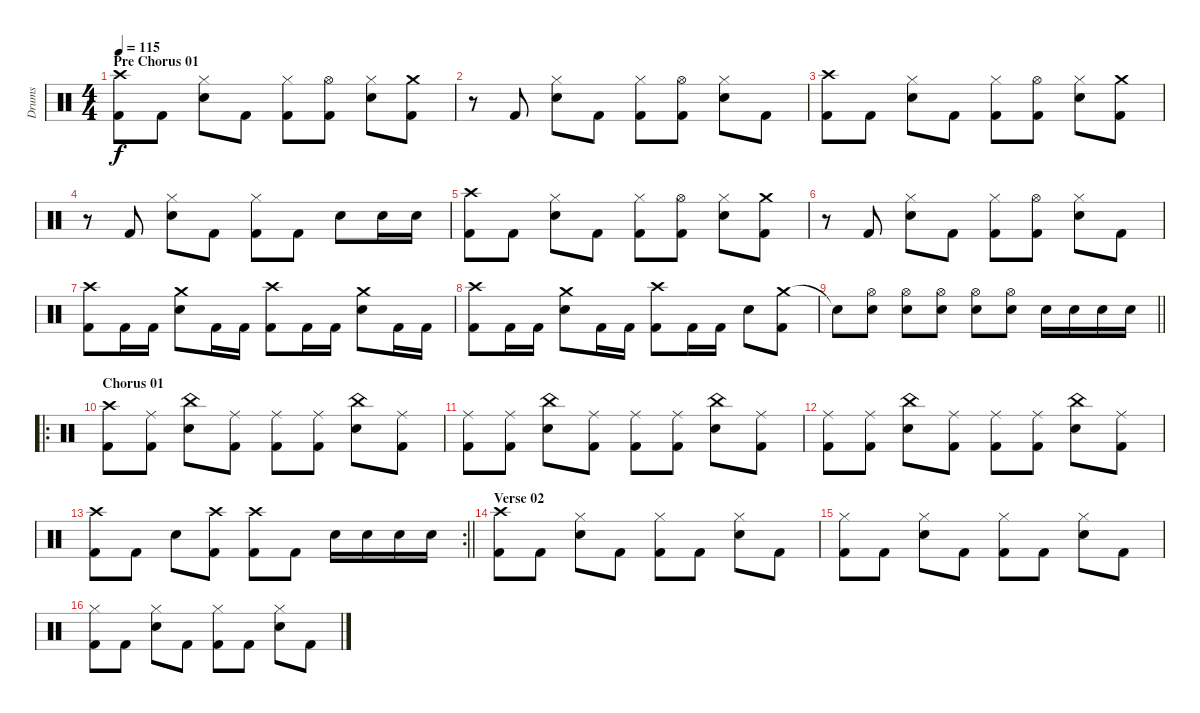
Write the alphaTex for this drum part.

\track ("Drums" "Drums") {instrument percussion}
\staff {score}
\articulation defaults
\ts (4 4)
\section ("" "Pre Chorus 01")
\tempo 115
\clef neutral
\ks c
("Crash high (hit)" "Kick (hit) 2").8{dy f} "Kick (hit) 2".8 ("Hi-Hat (closed)" "Snare (hit) 2").8 "Kick (hit) 2".8 ("Hi-Hat (closed)" "Kick (hit) 2").8 ("Hi-Hat (open)" "Kick (hit) 2").8 ("Hi-Hat (closed)" "Snare (hit) 2").8 ("Crash medium (hit)" "Kick (hit) 2").8 |
r.8 "Kick (hit) 2".8 ("Hi-Hat (closed)" "Snare (hit) 2").8 "Kick (hit) 2".8 ("Hi-Hat (closed)" "Kick (hit) 2").8 ("Hi-Hat (open)" "Kick (hit) 2").8 ("Hi-Hat (closed)" "Snare (hit) 2").8 "Kick (hit) 2".8 |
("Crash high (hit)" "Kick (hit) 2").8 "Kick (hit) 2".8 ("Hi-Hat (closed)" "Snare (hit) 2").8 "Kick (hit) 2".8 ("Hi-Hat (closed)" "Kick (hit) 2").8 ("Hi-Hat (open)" "Kick (hit) 2").8 ("Hi-Hat (closed)" "Snare (hit) 2").8 ("Crash medium (hit)" "Kick (hit) 2").8 |
r.8 "Kick (hit) 2".8 ("Hi-Hat (closed)" "Snare (hit) 2").8 "Kick (hit) 2".8 ("Hi-Hat (closed)" "Kick (hit) 2").8 "Kick (hit) 2".8 "Snare (hit) 2".8 "Snare (hit) 2".16 "Snare (hit) 2".16 |
("Crash high (hit)" "Kick (hit) 2").8 "Kick (hit) 2".8 ("Hi-Hat (closed)" "Snare (hit) 2").8 "Kick (hit) 2".8 ("Hi-Hat (closed)" "Kick (hit) 2").8 ("Hi-Hat (open)" "Kick (hit) 2").8 ("Hi-Hat (closed)" "Snare (hit) 2").8 ("Crash medium (hit)" "Kick (hit) 2").8 |
r.8 "Kick (hit) 2".8 ("Hi-Hat (closed)" "Snare (hit) 2").8 "Kick (hit) 2".8 ("Hi-Hat (closed)" "Kick (hit) 2").8 ("Hi-Hat (open)" "Kick (hit) 2").8 ("Hi-Hat (closed)" "Snare (hit) 2").8 "Kick (hit) 2".8 |
("Crash high (hit)" "Kick (hit) 2").8 "Kick (hit) 2".16 "Kick (hit) 2".16 ("Crash medium (hit)" "Snare (hit) 2").8 "Kick (hit) 2".16 "Kick (hit) 2".16 ("Crash high (hit)" "Kick (hit) 2").8 "Kick (hit) 2".16 "Kick (hit) 2".16 ("Crash medium (hit)" "Snare (hit) 2").8 "Kick (hit) 2".16 "Kick (hit) 2".16 |
("Crash high (hit)" "Kick (hit) 2").8 "Kick (hit) 2".16 "Kick (hit) 2".16 ("Crash medium (hit)" "Snare (hit) 2").8 "Kick (hit) 2".16 "Kick (hit) 2".16 ("Crash high (hit)" "Kick (hit) 2").8 "Kick (hit) 2".16 "Kick (hit) 2".16 "Snare (hit) 2".8 ("Crash medium (hit)" "Kick (hit) 2").8 |
\barLineRight lightlight "Snare (hit)"{t}.8
("Hi-Hat (open)" "Snare (hit) 2").8 ("Hi-Hat (open)" "Snare (hit) 2").8 ("Hi-Hat (open)" "Snare (hit) 2").8 ("Hi-Hat (open)" "Snare (hit) 2").8 ("Hi-Hat (open)" "Snare (hit) 2").8 "Snare (hit) 2".16 "Snare (hit) 2".16 "Snare (hit) 2".16 "Snare (hit) 2".16 |
\ro
\section ("" "Chorus 01")
("Crash high (hit)" "Kick (hit) 2").8 ("Ride (middle)" "Kick (hit) 2").8 ("China (hit)" "Snare (hit) 2").8 ("Ride (middle)" "Kick (hit) 2").8 ("Ride (middle)" "Kick (hit) 2").8 ("Ride (middle)" "Kick (hit) 2").8 ("China (hit)" "Snare (hit) 2").8 ("Ride (middle)" "Kick (hit) 2").8 |
("Ride (middle)" "Kick (hit) 2").8 ("Ride (middle)" "Kick (hit) 2").8 ("China (hit)" "Snare (hit) 2").8 ("Ride (middle)" "Kick (hit) 2").8 ("Ride (middle)" "Kick (hit) 2").8 ("Ride (middle)" "Kick (hit) 2").8 ("China (hit)" "Snare (hit) 2").8 ("Ride (middle)" "Kick (hit) 2").8 |
("Ride (middle)" "Kick (hit) 2").8 ("Ride (middle)" "Kick (hit) 2").8 ("China (hit)" "Snare (hit) 2").8 ("Ride (middle)" "Kick (hit) 2").8 ("Ride (middle)" "Kick (hit) 2").8 ("Ride (middle)" "Kick (hit) 2").8 ("China (hit)" "Snare (hit) 2").8 ("Ride (middle)" "Kick (hit) 2").8 |
\rc 2
\barLineRight lightlight
("Crash high (hit)" "Kick (hit) 2").8 "Kick (hit) 2".8 "Snare (hit) 2".8 ("Crash high (hit)" "Kick (hit) 2").8 ("Crash high (hit)" "Kick (hit) 2").8 "Kick (hit) 2".8 "Snare (hit) 2".16 "Snare (hit) 2".16 "Snare (hit) 2".16 "Snare (hit) 2".16 |
\section ("" "Verse 02")
("Crash high (hit)" "Kick (hit) 2").8 "Kick (hit) 2".8 ("Hi-Hat (closed)" "Snare (hit) 2").8 "Kick (hit) 2".8 ("Hi-Hat (closed)" "Kick (hit) 2").8 "Kick (hit) 2".8 ("Hi-Hat (closed)" "Snare (hit) 2").8 "Kick (hit) 2".8 |
("Hi-Hat (closed)" "Kick (hit) 2").8 "Kick (hit) 2".8 ("Hi-Hat (closed)" "Snare (hit) 2").8 "Kick (hit) 2".8 ("Hi-Hat (closed)" "Kick (hit) 2").8 "Kick (hit) 2".8 ("Hi-Hat (closed)" "Snare (hit) 2").8 "Kick (hit) 2".8 |
("Hi-Hat (closed)" "Kick (hit) 2").8 "Kick (hit) 2".8 ("Hi-Hat (closed)" "Snare (hit) 2").8 "Kick (hit) 2".8 ("Hi-Hat (closed)" "Kick (hit) 2").8 "Kick (hit) 2".8 ("Hi-Hat (closed)" "Snare (hit) 2").8 "Kick (hit) 2".8
